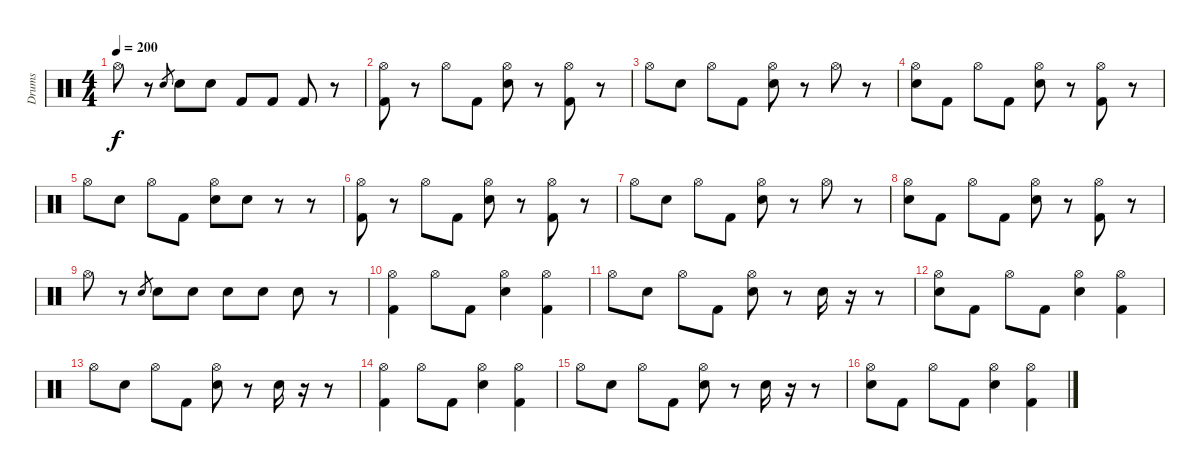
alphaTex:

\track ("Drums" "Drums") {instrument percussion}
\staff {score}
\articulation defaults
\ts (4 4)
\tempo 200
\clef neutral
\ks c "Hi-Hat (open)".8{dy f}
r.8 "Electric Snare (hit)".8{gr} "Electric Snare (hit)".8 "Electric Snare (hit)".8 "Kick (hit) 2".8 "Kick (hit) 2".8 "Kick (hit) 2".8 r.8 |
("Hi-Hat (open)" "Kick (hit) 2").8 r.8 "Hi-Hat (open)".8 "Kick (hit) 2".8 ("Hi-Hat (open)" "Electric Snare (hit)").8 r.8 ("Hi-Hat (open)" "Kick (hit) 2").8 r.8 |
"Hi-Hat (open)".8 "Electric Snare (hit)".8 "Hi-Hat (open)".8 "Kick (hit) 2".8 ("Hi-Hat (open)" "Electric Snare (hit)").8 r.8 "Hi-Hat (open)".8 r.8 |
("Hi-Hat (open)" "Electric Snare (hit)").8 "Kick (hit) 2".8 "Hi-Hat (open)".8 "Kick (hit) 2".8 ("Hi-Hat (open)" "Electric Snare (hit)").8 r.8 ("Hi-Hat (open)" "Kick (hit) 2").8 r.8 |
"Hi-Hat (open)".8 "Electric Snare (hit)".8 "Hi-Hat (open)".8 "Kick (hit) 2".8 ("Hi-Hat (open)" "Electric Snare (hit)").8 "Electric Snare (hit)".8 r.8 r.8 |
("Hi-Hat (open)" "Kick (hit) 2").8 r.8 "Hi-Hat (open)".8 "Kick (hit) 2".8 ("Hi-Hat (open)" "Electric Snare (hit)").8 r.8 ("Hi-Hat (open)" "Kick (hit) 2").8 r.8 |
"Hi-Hat (open)".8 "Electric Snare (hit)".8 "Hi-Hat (open)".8 "Kick (hit) 2".8 ("Hi-Hat (open)" "Electric Snare (hit)").8 r.8 "Hi-Hat (open)".8 r.8 |
("Hi-Hat (open)" "Electric Snare (hit)").8 "Kick (hit) 2".8 "Hi-Hat (open)".8 "Kick (hit) 2".8 ("Hi-Hat (open)" "Electric Snare (hit)").8 r.8 ("Hi-Hat (open)" "Kick (hit) 2").8 r.8 |
"Hi-Hat (open)".8 r.8 "Electric Snare (hit)".8{gr} "Electric Snare (hit)".8 "Electric Snare (hit)".8 "Electric Snare (hit)".8 "Electric Snare (hit)".8 "Electric Snare (hit)".8 r.8 |
("Hi-Hat (open)" "Kick (hit) 2").4 "Hi-Hat (open)".8 "Kick (hit) 2".8 ("Hi-Hat (open)" "Electric Snare (hit)").4 ("Hi-Hat (open)" "Kick (hit) 2").4 |
"Hi-Hat (open)".8 "Electric Snare (hit)".8 "Hi-Hat (open)".8 "Kick (hit) 2".8 ("Hi-Hat (open)" "Electric Snare (hit)").8 r.8 "Electric Snare (hit)".16 r.16 r.8 |
("Hi-Hat (open)" "Electric Snare (hit)").8 "Kick (hit) 2".8 "Hi-Hat (open)".8 "Kick (hit) 2".8 ("Hi-Hat (open)" "Electric Snare (hit)").4 ("Hi-Hat (open)" "Kick (hit) 2").4 |
"Hi-Hat (open)".8 "Electric Snare (hit)".8 "Hi-Hat (open)".8 "Kick (hit) 2".8 ("Hi-Hat (open)" "Electric Snare (hit)").8 r.8 "Electric Snare (hit)".16 r.16 r.8 |
("Hi-Hat (open)" "Kick (hit) 2").4 "Hi-Hat (open)".8 "Kick (hit) 2".8 ("Hi-Hat (open)" "Electric Snare (hit)").4 ("Hi-Hat (open)" "Kick (hit) 2").4 |
"Hi-Hat (open)".8 "Electric Snare (hit)".8 "Hi-Hat (open)".8 "Kick (hit) 2".8 ("Hi-Hat (open)" "Electric Snare (hit)").8 r.8 "Electric Snare (hit)".16 r.16 r.8 |
("Hi-Hat (open)" "Electric Snare (hit)").8 "Kick (hit) 2".8 "Hi-Hat (open)".8 "Kick (hit) 2".8 ("Hi-Hat (open)" "Electric Snare (hit)").4 ("Hi-Hat (open)" "Kick (hit) 2").4
